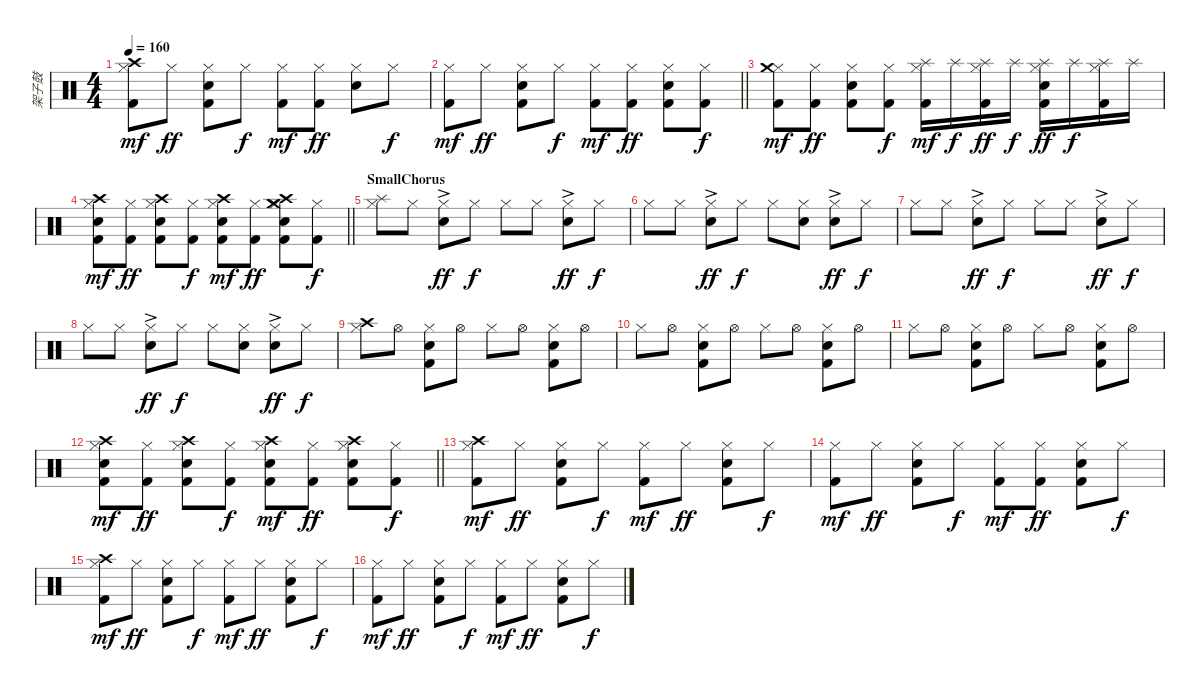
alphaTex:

\track ("架子鼓" "架子鼓") {instrument percussion}
\staff {score}
\articulation defaults
\ts (4 4)
\tempo 160
\clef neutral
\ks c
("Hi-Hat (closed)" "Crash high (hit)" "Kick (hit) 2").8{dy mf} "Hi-Hat (closed)".8{dy ff} ("Hi-Hat (closed)" "Electric Snare (hit)" "Kick (hit) 2").8 "Hi-Hat (closed)".8{dy f} ("Hi-Hat (closed)" "Kick (hit) 2").8{dy mf} ("Hi-Hat (closed)" "Kick (hit) 2").8{dy ff} ("Hi-Hat (closed)" "Electric Snare (hit)").8 "Hi-Hat (closed)".8{dy f} |
\barLineRight lightlight
("Hi-Hat (closed)" "Kick (hit) 2").8{dy mf} "Hi-Hat (closed)".8{dy ff} ("Hi-Hat (closed)" "Electric Snare (hit)" "Kick (hit) 2").8 "Hi-Hat (closed)".8{dy f} ("Hi-Hat (closed)" "Kick (hit) 2").8{dy mf} ("Hi-Hat (closed)" "Kick (hit) 2").8{dy ff} ("Hi-Hat (closed)" "Electric Snare (hit)" "Kick (hit) 2").8 ("Hi-Hat (closed)" "Kick (hit) 2").8{dy f} |
("Hi-Hat (closed)" "Crash medium (hit)" "Kick (hit) 2").8{dy mf} ("Hi-Hat (closed)" "Kick (hit) 2").8{dy ff} ("Hi-Hat (closed)" "Electric Snare (hit)" "Kick (hit) 2").8 ("Hi-Hat (closed)" "Kick (hit) 2").8{dy f} ("Hi-Hat (closed)" "Splash (hit)" "Kick (hit) 2").16{dy mf} "Splash (hit)".16{dy f} ("Hi-Hat (closed)" "Splash (hit)" "Kick (hit) 2").16{dy ff} "Splash (hit)".16{dy f} ("Hi-Hat (closed)" "Electric Snare (hit)" "Splash (hit)" "Kick (hit) 2").16{dy ff} "Splash (hit)".16{dy f} ("Hi-Hat (closed)" "Splash (hit)" "Kick (hit) 2").16 "Splash (hit)".16 |
\barLineRight lightlight
("Hi-Hat (closed)" "Electric Snare (hit)" "Crash high (hit)" "Kick (hit) 2").8{dy mf} ("Hi-Hat (closed)" "Kick (hit) 2").8{dy ff} ("Hi-Hat (closed)" "Electric Snare (hit)" "Crash high (hit)" "Kick (hit) 2").8 ("Hi-Hat (closed)" "Kick (hit) 2").8{dy f} ("Hi-Hat (closed)" "Electric Snare (hit)" "Crash high (hit)" "Kick (hit) 2").8{dy mf} ("Hi-Hat (closed)" "Kick (hit) 2").8{dy ff} ("Hi-Hat (closed)" "Electric Snare (hit)" "Crash high (hit)" "Crash medium (hit)" "Kick (hit) 2").8 ("Hi-Hat (closed)" "Kick (hit) 2").8{dy f} |
\section ("" "SmallChorus")
("Hi-Hat (closed)" "Splash (hit)").8 "Hi-Hat (closed)".8 ("Hi-Hat (closed)"{ac} "Hand Clap (hit)").8{dy ff} "Hi-Hat (closed)".8{dy f} "Hi-Hat (closed)".8 "Hi-Hat (closed)".8 ("Hi-Hat (closed)"{ac} "Hand Clap (hit)").8{dy ff} "Hi-Hat (closed)".8{dy f} |
"Hi-Hat (closed)".8 "Hi-Hat (closed)".8 ("Hi-Hat (closed)"{ac} "Hand Clap (hit)").8{dy ff} "Hi-Hat (closed)".8{dy f} "Hi-Hat (closed)".8 ("Hi-Hat (closed)" "Hand Clap (hit)").8 ("Hi-Hat (closed)"{ac} "Hand Clap (hit)").8{dy ff} "Hi-Hat (closed)".8{dy f} |
"Hi-Hat (closed)".8 "Hi-Hat (closed)".8 ("Hi-Hat (closed)"{ac} "Hand Clap (hit)").8{dy ff} "Hi-Hat (closed)".8{dy f} "Hi-Hat (closed)".8 "Hi-Hat (closed)".8 ("Hi-Hat (closed)"{ac} "Hand Clap (hit)").8{dy ff} "Hi-Hat (closed)".8{dy f} |
"Hi-Hat (closed)".8 "Hi-Hat (closed)".8 ("Hi-Hat (closed)"{ac} "Hand Clap (hit)").8{dy ff} "Hi-Hat (closed)".8{dy f} "Hi-Hat (closed)".8 ("Hi-Hat (closed)" "Hand Clap (hit)").8 ("Hi-Hat (closed)"{ac} "Hand Clap (hit)").8{dy ff} "Hi-Hat (closed)".8{dy f} |
("Hi-Hat (closed)" "Crash high (hit)").8 "Hi-Hat (open)".8 ("Hi-Hat (closed)" "Hand Clap (hit)" "Kick (hit) 2").8 "Hi-Hat (open)".8 "Hi-Hat (closed)".8 "Hi-Hat (open)".8 ("Hi-Hat (closed)" "Hand Clap (hit)" "Kick (hit) 2").8 "Hi-Hat (open)".8 |
"Hi-Hat (closed)".8 "Hi-Hat (open)".8 ("Hi-Hat (closed)" "Hand Clap (hit)" "Kick (hit) 2").8 "Hi-Hat (open)".8 "Hi-Hat (closed)".8 "Hi-Hat (open)".8 ("Hi-Hat (closed)" "Hand Clap (hit)" "Kick (hit) 2").8 "Hi-Hat (open)".8 |
"Hi-Hat (closed)".8 "Hi-Hat (open)".8 ("Hi-Hat (closed)" "Hand Clap (hit)" "Kick (hit) 2").8 "Hi-Hat (open)".8 "Hi-Hat (closed)".8 "Hi-Hat (open)".8 ("Hi-Hat (closed)" "Hand Clap (hit)" "Kick (hit) 2").8 "Hi-Hat (open)".8 |
\barLineRight lightlight
("Hi-Hat (closed)" "Electric Snare (hit)" "Crash high (hit)" "Kick (hit) 2").8{dy mf} ("Hi-Hat (closed)" "Kick (hit) 2").8{dy ff} ("Hi-Hat (closed)" "Electric Snare (hit)" "Crash high (hit)" "Kick (hit) 2").8 ("Hi-Hat (closed)" "Kick (hit) 2").8{dy f} ("Hi-Hat (closed)" "Electric Snare (hit)" "Crash high (hit)" "Kick (hit) 2").8{dy mf} ("Hi-Hat (closed)" "Kick (hit) 2").8{dy ff} ("Hi-Hat (closed)" "Electric Snare (hit)" "Crash high (hit)" "Kick (hit) 2").8 ("Hi-Hat (closed)" "Kick (hit) 2").8{dy f} |
("Hi-Hat (closed)" "Crash high (hit)" "Kick (hit) 2").8{dy mf} "Hi-Hat (closed)".8{dy ff} ("Hi-Hat (closed)" "Electric Snare (hit)" "Kick (hit) 2").8 "Hi-Hat (closed)".8{dy f} ("Hi-Hat (closed)" "Kick (hit) 2").8{dy mf} "Hi-Hat (closed)".8{dy ff} ("Hi-Hat (closed)" "Electric Snare (hit)" "Kick (hit) 2").8 "Hi-Hat (closed)".8{dy f} |
("Hi-Hat (closed)" "Kick (hit) 2").8{dy mf} "Hi-Hat (closed)".8{dy ff} ("Hi-Hat (closed)" "Electric Snare (hit)" "Kick (hit) 2").8 "Hi-Hat (closed)".8{dy f} ("Hi-Hat (closed)" "Kick (hit) 2").8{dy mf} ("Hi-Hat (closed)" "Kick (hit) 2").8{dy ff} ("Hi-Hat (closed)" "Electric Snare (hit)" "Kick (hit) 2").8 "Hi-Hat (closed)".8{dy f} |
("Hi-Hat (closed)" "Crash high (hit)" "Kick (hit) 2").8{dy mf} "Hi-Hat (closed)".8{dy ff} ("Hi-Hat (closed)" "Electric Snare (hit)" "Kick (hit) 2").8 "Hi-Hat (closed)".8{dy f} ("Hi-Hat (closed)" "Kick (hit) 2").8{dy mf} "Hi-Hat (closed)".8{dy ff} ("Hi-Hat (closed)" "Electric Snare (hit)" "Kick (hit) 2").8 "Hi-Hat (closed)".8{dy f} |
("Hi-Hat (closed)" "Kick (hit) 2").8{dy mf} "Hi-Hat (closed)".8{dy ff} ("Hi-Hat (closed)" "Electric Snare (hit)" "Kick (hit) 2").8 "Hi-Hat (closed)".8{dy f} ("Hi-Hat (closed)" "Kick (hit) 2").8{dy mf} "Hi-Hat (closed)".8{dy ff} ("Hi-Hat (closed)" "Electric Snare (hit)" "Kick (hit) 2").8 "Hi-Hat (closed)".8{dy f}
